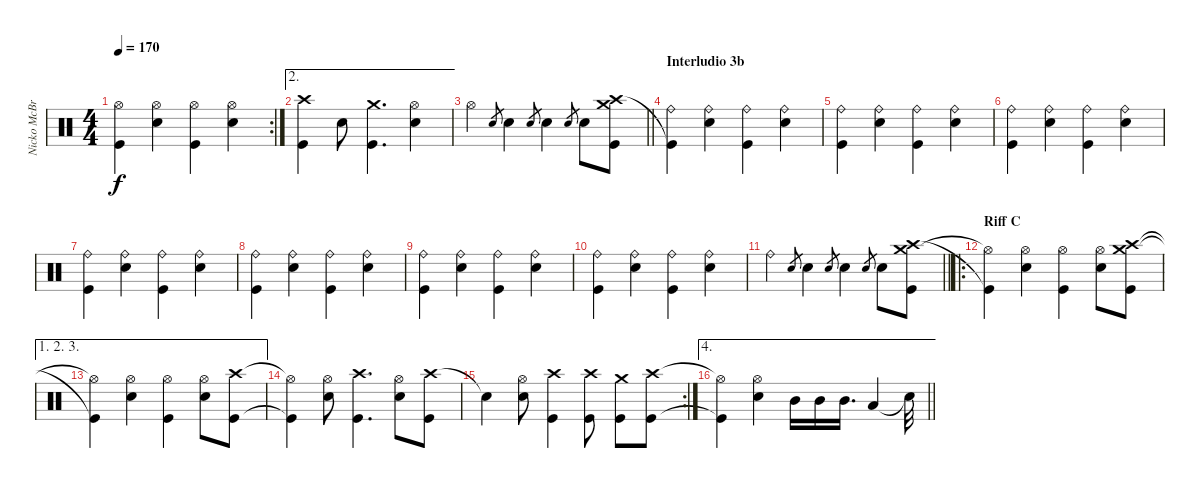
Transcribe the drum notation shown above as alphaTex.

\track ("Nicko McBrain" "Nicko McBr") {instrument percussion}
\staff {score}
\articulation defaults
\rc 2
\ts (4 4)
\tempo 170
\clef neutral
\ks c
("Hi-Hat (open)" "Kick (hit)").4{dy f} ("Hi-Hat (open)" "Snare (hit) 2").4 ("Hi-Hat (open)" "Kick (hit)").4 ("Hi-Hat (open)" "Snare (hit) 2").4 |
\ae 2
("Crash high (hit)" "Kick (hit)").4 "Snare (hit) 2".8 ("Crash medium (hit)" "Kick (hit)").4{d} ("Hi-Hat (open)" "Snare (hit) 2").4 |
\barLineRight lightlight "Hi-Hat (open)".4 "Snare (hit) 2".8{gr} "Snare (hit) 2".4 "Snare (hit) 2".8{gr} "Snare (hit) 2".4 "Snare (hit) 2".8{gr} "Snare (hit) 2".8
("Crash medium (hit)" "Crash high (hit)" "Kick (hit)").8 |
\section ("" "Interludio 3b")
("Ride (bell)" "Kick (hit)"{t}).4 ("Ride (bell)" "Snare (hit) 2").4 ("Ride (bell)" "Kick (hit)").4 ("Ride (bell)" "Snare (hit) 2").4 |
("Ride (bell)" "Kick (hit)").4 ("Ride (bell)" "Snare (hit) 2").4 ("Ride (bell)" "Kick (hit)").4 ("Ride (bell)" "Snare (hit) 2").4 |
("Ride (bell)" "Kick (hit)").4 ("Ride (bell)" "Snare (hit) 2").4 ("Ride (bell)" "Kick (hit)").4 ("Ride (bell)" "Snare (hit) 2").4 |
("Ride (bell)" "Kick (hit)").4 ("Ride (bell)" "Snare (hit) 2").4 ("Ride (bell)" "Kick (hit)").4 ("Ride (bell)" "Snare (hit) 2").4 |
("Ride (bell)" "Kick (hit)").4 ("Ride (bell)" "Snare (hit) 2").4 ("Ride (bell)" "Kick (hit)").4 ("Ride (bell)" "Snare (hit) 2").4 |
("Ride (bell)" "Kick (hit)").4 ("Ride (bell)" "Snare (hit) 2").4 ("Ride (bell)" "Kick (hit)").4 ("Ride (bell)" "Snare (hit) 2").4 |
("Ride (bell)" "Kick (hit)").4 ("Ride (bell)" "Snare (hit) 2").4 ("Ride (bell)" "Kick (hit)").4 ("Ride (bell)" "Snare (hit) 2").4 |
\barLineRight lightlight "Ride (bell)".4 "Snare (hit) 2".8{gr} "Snare (hit) 2".4 "Snare (hit) 2".8{gr} "Snare (hit) 2".4 "Snare (hit) 2".8{gr} "Snare (hit) 2".8
("Crash medium (hit)" "Crash high (hit)" "Kick (hit)").8 |
\ro
\section ("" "Riff C")
("Hi-Hat (open)"{t} "Kick (hit)"{t}).4 ("Hi-Hat (open)" "Snare (hit) 2").4 ("Hi-Hat (open)" "Kick (hit)").4 ("Hi-Hat (open)" "Snare (hit) 2").8 ("Crash medium (hit)" "Crash high (hit)" "Kick (hit)").8 |
\ae (1 2 3)
("Hi-Hat (open)"{t} "Kick (hit)"{t}).4 ("Hi-Hat (open)" "Snare (hit) 2").4 ("Hi-Hat (open)" "Kick (hit)").4 ("Hi-Hat (open)" "Snare (hit) 2").8 ("Crash high (hit)" "Kick (hit)").8 |
("Hi-Hat (open)"{t} "Kick (hit)"{t}).4 ("Hi-Hat (open)" "Snare (hit) 2").8 ("Crash high (hit)" "Kick (hit)").4{d} ("Hi-Hat (open)" "Snare (hit) 2").8 ("Crash high (hit)" "Kick (hit)").8 |
\rc 2 "Snare (hit)"{t}.4
("Hi-Hat (open)" "Snare (hit) 2").8 ("Crash high (hit)" "Kick (hit)").4 ("Crash high (hit)" "Kick (hit)").8 ("Crash medium (hit)" "Kick (hit)").8 ("Crash high (hit)" "Kick (hit)").8 |
\ae 4
\barLineRight lightlight
("Hi-Hat (open)"{t} "Kick (hit)"{t}).4 ("Hi-Hat (open)" "Snare (hit) 2").4 "Mid Tom (hit)".16 "Mid Tom (hit)".16 "Mid Tom (hit)".16{d} "Low Tom (hit)".4 "Snare (hit)"{t}.32
